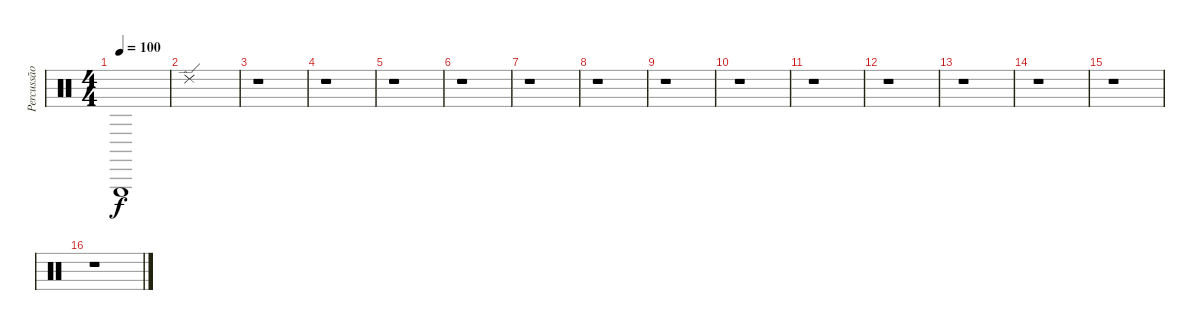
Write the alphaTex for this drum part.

\track ("Percussão" "Percussão") {instrument percussion}
\staff {score}
\articulation defaults
\ts (4 4)
\tempo 100
\clef neutral
\ks c "Triangle (hit)".1{dy f}
|
"Ride (edge) 2".1 |
r.1 |
\ks aminor
r.1 |
r.1 |
r.1 |
r.1 |
\ks c
r.1 |
r.1 |
r.1 |
r.1 |
\ks aminor
r.1 |
r.1 |
r.1 |
r.1 |
\ks c
r.1
